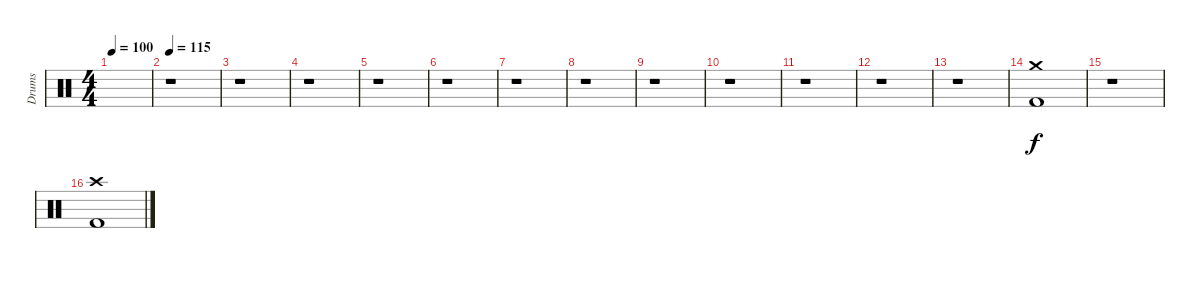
\track ("Drums" "Drums") {instrument percussion}
\staff {score}
\articulation defaults
\ts (4 4)
\tempo 100
\clef neutral
\ks c
|
\tempo 115
r.1 |
r.1 |
r.1 |
r.1 |
r.1 |
r.1 |
r.1 |
r.1 |
r.1 |
r.1 |
r.1 |
r.1 |
("Crash medium (hit)" "Kick (hit) 2").1 |
r.1 |
("Crash high (hit)" "Kick (hit) 2").1
